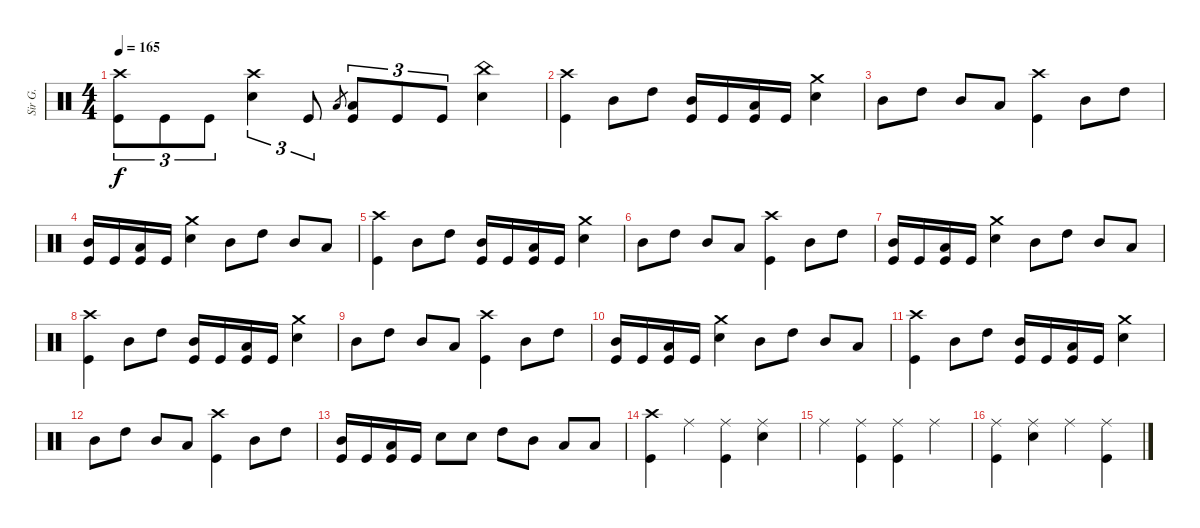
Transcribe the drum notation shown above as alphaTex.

\track ("Sir G." "Sir G.") {instrument percussion}
\staff {score}
\articulation defaults
\ts (4 4)
\tempo 165
\clef neutral
\ks c
("Crash high (hit)" "Kick (hit)").8{tu (3 2) dy f} "Kick (hit)".8{tu (3 2)} "Kick (hit)".8{tu (3 2)} ("Crash high (hit)" "Electric Snare (hit)").4{tu (3 2)} "Kick (hit)".8{tu (3 2)} "Low Tom (hit)".8{gr} ("Low Tom (hit)" "Kick (hit)").8{tu (3 2)} "Kick (hit)".8{tu (3 2)} "Kick (hit)".8{tu (3 2)} ("China (hit)" "Electric Snare (hit)").4 |
("Crash high (hit)" "Kick (hit)").4 "Mid Tom (hit)".8 "High Tom (hit)".8 ("Mid Tom (hit)" "Kick (hit)").16 "Kick (hit)".16 ("Low Tom (hit)" "Kick (hit)").16 "Kick (hit)".16 ("Crash medium (hit)" "Electric Snare (hit)").4 |
"Mid Tom (hit)".8 "High Tom (hit)".8 "Mid Tom (hit)".8 "Low Tom (hit)".8 ("Crash high (hit)" "Kick (hit)").4 "Mid Tom (hit)".8 "High Tom (hit)".8 |
("Mid Tom (hit)" "Kick (hit)").16 "Kick (hit)".16 ("Low Tom (hit)" "Kick (hit)").16 "Kick (hit)".16 ("Crash medium (hit)" "Electric Snare (hit)").4 "Mid Tom (hit)".8 "High Tom (hit)".8 "Mid Tom (hit)".8 "Low Tom (hit)".8 |
("Crash high (hit)" "Kick (hit)").4 "Mid Tom (hit)".8 "High Tom (hit)".8 ("Mid Tom (hit)" "Kick (hit)").16 "Kick (hit)".16 ("Low Tom (hit)" "Kick (hit)").16 "Kick (hit)".16 ("Crash medium (hit)" "Electric Snare (hit)").4 |
"Mid Tom (hit)".8 "High Tom (hit)".8 "Mid Tom (hit)".8 "Low Tom (hit)".8 ("Crash high (hit)" "Kick (hit)").4 "Mid Tom (hit)".8 "High Tom (hit)".8 |
("Mid Tom (hit)" "Kick (hit)").16 "Kick (hit)".16 ("Low Tom (hit)" "Kick (hit)").16 "Kick (hit)".16 ("Crash medium (hit)" "Electric Snare (hit)").4 "Mid Tom (hit)".8 "High Tom (hit)".8 "Mid Tom (hit)".8 "Low Tom (hit)".8 |
("Crash high (hit)" "Kick (hit)").4 "Mid Tom (hit)".8 "High Tom (hit)".8 ("Mid Tom (hit)" "Kick (hit)").16 "Kick (hit)".16 ("Low Tom (hit)" "Kick (hit)").16 "Kick (hit)".16 ("Crash medium (hit)" "Electric Snare (hit)").4 |
"Mid Tom (hit)".8 "High Tom (hit)".8 "Mid Tom (hit)".8 "Low Tom (hit)".8 ("Crash high (hit)" "Kick (hit)").4 "Mid Tom (hit)".8 "High Tom (hit)".8 |
("Mid Tom (hit)" "Kick (hit)").16 "Kick (hit)".16 ("Low Tom (hit)" "Kick (hit)").16 "Kick (hit)".16 ("Crash medium (hit)" "Electric Snare (hit)").4 "Mid Tom (hit)".8 "High Tom (hit)".8 "Mid Tom (hit)".8 "Low Tom (hit)".8 |
("Crash high (hit)" "Kick (hit)").4 "Mid Tom (hit)".8 "High Tom (hit)".8 ("Mid Tom (hit)" "Kick (hit)").16 "Kick (hit)".16 ("Low Tom (hit)" "Kick (hit)").16 "Kick (hit)".16 ("Crash medium (hit)" "Electric Snare (hit)").4 |
"Mid Tom (hit)".8 "High Tom (hit)".8 "Mid Tom (hit)".8 "Low Tom (hit)".8 ("Crash high (hit)" "Kick (hit)").4 "Mid Tom (hit)".8 "High Tom (hit)".8 |
("Mid Tom (hit)" "Kick (hit)").16 "Kick (hit)".16 ("Low Tom (hit)" "Kick (hit)").16 "Kick (hit)".16 "Electric Snare (hit)".8 "Electric Snare (hit)".8 "High Tom (hit)".8 "Mid Tom (hit)".8 "Low Tom (hit)".8 "Low Tom (hit)".8 |
("Crash high (hit)" "Kick (hit)").4 "Ride (middle)".4 ("Ride (middle)" "Kick (hit)").4 ("Ride (middle)" "Electric Snare (hit)").4 |
"Ride (middle)".4 ("Ride (middle)" "Kick (hit)").4 ("Ride (middle)" "Kick (hit)").4 "Ride (middle)".4 |
("Ride (middle)" "Kick (hit)").4 ("Ride (middle)" "Electric Snare (hit)").4 "Ride (middle)".4 ("Ride (middle)" "Kick (hit)").4
